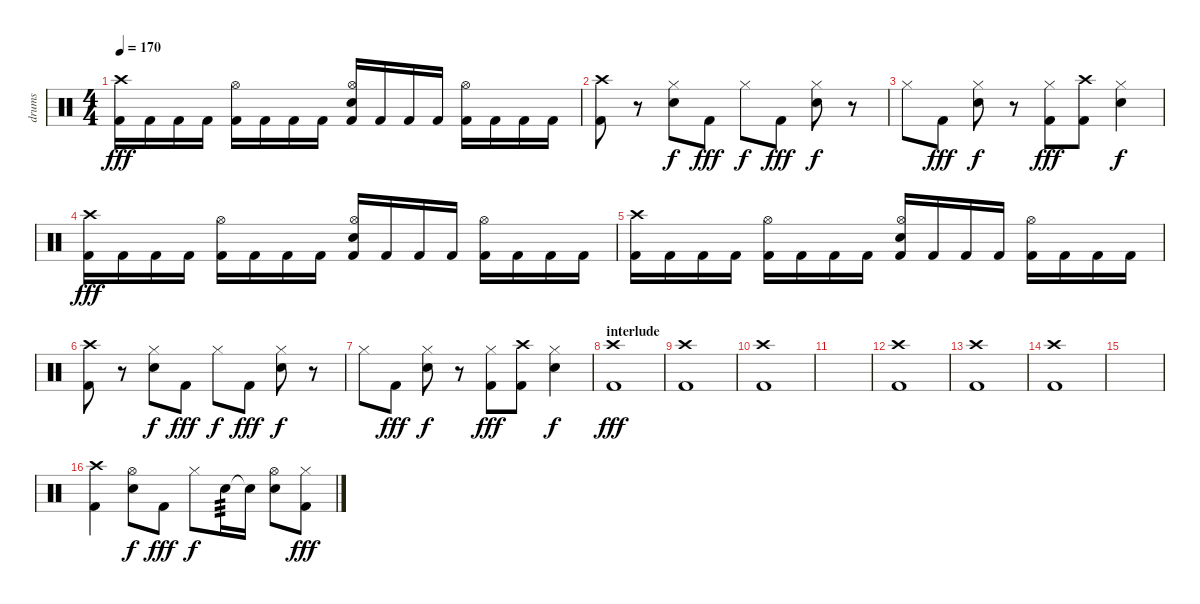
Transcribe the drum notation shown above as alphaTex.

\track ("drums" "drums") {instrument percussion}
\staff {score}
\articulation defaults
\ts (4 4)
\tempo 170
\clef neutral
\ks c
("Crash high (hit)" "Kick (hit) 2").16{dy fff} "Kick (hit) 2".16 "Kick (hit) 2".16 "Kick (hit) 2".16 ("Hi-Hat (open)" "Kick (hit) 2").16 "Kick (hit) 2".16 "Kick (hit) 2".16 "Kick (hit) 2".16 ("Hi-Hat (open)" "Snare (hit) 2" "Kick (hit) 2").16 "Kick (hit) 2".16 "Kick (hit) 2".16 "Kick (hit) 2".16 ("Hi-Hat (open)" "Kick (hit) 2").16 "Kick (hit) 2".16 "Kick (hit) 2".16 "Kick (hit) 2".16 |
("Crash high (hit)" "Kick (hit) 2").8 r.8 ("Hi-Hat (closed)" "Snare (hit) 2").8{dy f} "Kick (hit) 2".8{dy fff} "Hi-Hat (closed)".8{dy f} "Kick (hit) 2".8{dy fff} ("Hi-Hat (closed)" "Snare (hit) 2").8{dy f} r.8 |
"Hi-Hat (closed)".8 "Kick (hit) 2".8{dy fff} ("Hi-Hat (closed)" "Snare (hit) 2").8{dy f} r.8 ("Hi-Hat (closed)" "Kick (hit) 2").8{dy fff} ("Crash high (hit)" "Kick (hit) 2").8 ("Hi-Hat (closed)" "Snare (hit) 2").4{dy f} |
("Crash high (hit)" "Kick (hit) 2").16{dy fff} "Kick (hit) 2".16 "Kick (hit) 2".16 "Kick (hit) 2".16 ("Hi-Hat (open)" "Kick (hit) 2").16 "Kick (hit) 2".16 "Kick (hit) 2".16 "Kick (hit) 2".16 ("Hi-Hat (open)" "Snare (hit) 2" "Kick (hit) 2").16 "Kick (hit) 2".16 "Kick (hit) 2".16 "Kick (hit) 2".16 ("Hi-Hat (open)" "Kick (hit) 2").16 "Kick (hit) 2".16 "Kick (hit) 2".16 "Kick (hit) 2".16 |
("Crash high (hit)" "Kick (hit) 2").16 "Kick (hit) 2".16 "Kick (hit) 2".16 "Kick (hit) 2".16 ("Hi-Hat (open)" "Kick (hit) 2").16 "Kick (hit) 2".16 "Kick (hit) 2".16 "Kick (hit) 2".16 ("Hi-Hat (open)" "Snare (hit) 2" "Kick (hit) 2").16 "Kick (hit) 2".16 "Kick (hit) 2".16 "Kick (hit) 2".16 ("Hi-Hat (open)" "Kick (hit) 2").16 "Kick (hit) 2".16 "Kick (hit) 2".16 "Kick (hit) 2".16 |
("Crash high (hit)" "Kick (hit) 2").8 r.8 ("Hi-Hat (closed)" "Snare (hit) 2").8{dy f} "Kick (hit) 2".8{dy fff} "Hi-Hat (closed)".8{dy f} "Kick (hit) 2".8{dy fff} ("Hi-Hat (closed)" "Snare (hit) 2").8{dy f} r.8 |
"Hi-Hat (closed)".8 "Kick (hit) 2".8{dy fff} ("Hi-Hat (closed)" "Snare (hit) 2").8{dy f} r.8 ("Hi-Hat (closed)" "Kick (hit) 2").8{dy fff} ("Crash high (hit)" "Kick (hit) 2").8 ("Hi-Hat (closed)" "Snare (hit) 2").4{dy f} |
\section ("" "interlude")
("Crash high (hit)" "Kick (hit) 2").1{dy fff} |
("Crash high (hit)" "Kick (hit) 2").1 |
("Crash high (hit)" "Kick (hit) 2").1 |
|
("Crash high (hit)" "Kick (hit) 2").1 |
("Crash high (hit)" "Kick (hit) 2").1 |
("Crash high (hit)" "Kick (hit) 2").1 |
|
("Crash high (hit)" "Kick (hit) 2").4 ("Hi-Hat (open)" "Snare (hit) 2").8{dy f} "Kick (hit) 2".8{dy fff} "Hi-Hat (closed)".8{dy f} "Snare (hit) 2".16{tp 3} "Snare (hit) 2"{t}.16 ("Hi-Hat (open)" "Snare (hit) 2").8 ("Hi-Hat (closed)" "Kick (hit) 2").8{dy fff}
